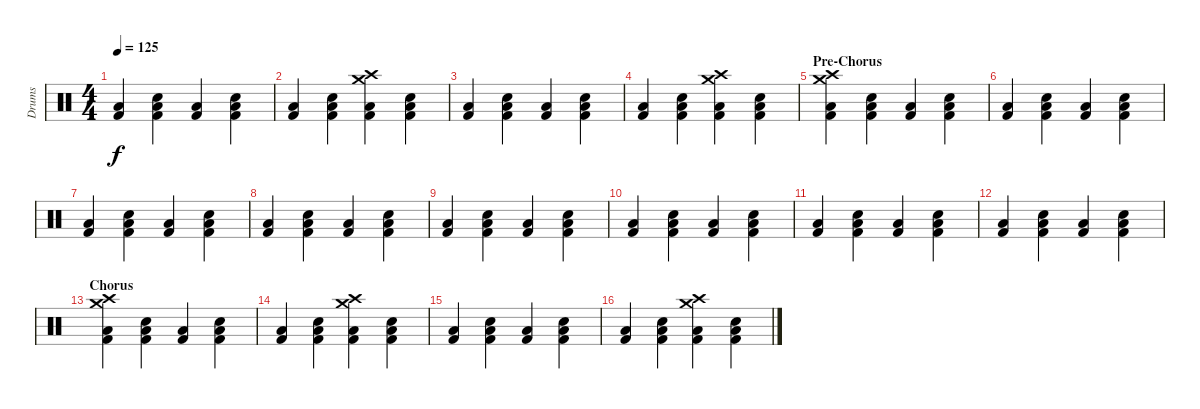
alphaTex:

\track ("Drums" "Drums") {instrument percussion}
\staff {score}
\articulation defaults
\ts (4 4)
\tempo 125
\clef neutral
\ks c
("Low Floor Tom (hit)" "Kick (hit) 2").4{dy f} ("Snare (hit) 2" "Low Floor Tom (hit)" "Kick (hit) 2").4 ("Low Floor Tom (hit)" "Kick (hit) 2").4 ("Snare (hit) 2" "Low Floor Tom (hit)" "Kick (hit) 2").4 |
("Low Floor Tom (hit)" "Kick (hit) 2").4 ("Snare (hit) 2" "Low Floor Tom (hit)" "Kick (hit) 2").4 ("Crash high (hit)" "Crash medium (hit)" "Low Floor Tom (hit)" "Kick (hit) 2").4 ("Snare (hit) 2" "Low Floor Tom (hit)" "Kick (hit) 2").4 |
("Low Floor Tom (hit)" "Kick (hit) 2").4 ("Snare (hit) 2" "Low Floor Tom (hit)" "Kick (hit) 2").4 ("Low Floor Tom (hit)" "Kick (hit) 2").4 ("Snare (hit) 2" "Low Floor Tom (hit)" "Kick (hit) 2").4 |
("Low Floor Tom (hit)" "Kick (hit) 2").4 ("Snare (hit) 2" "Low Floor Tom (hit)" "Kick (hit) 2").4 ("Crash high (hit)" "Crash medium (hit)" "Low Floor Tom (hit)" "Kick (hit) 2").4 ("Snare (hit) 2" "Low Floor Tom (hit)" "Kick (hit) 2").4 |
\section ("" "Pre-Chorus")
("Crash high (hit)" "Crash medium (hit)" "Low Floor Tom (hit)" "Kick (hit) 2").4 ("Snare (hit) 2" "Low Floor Tom (hit)" "Kick (hit) 2").4 ("Low Floor Tom (hit)" "Kick (hit) 2").4 ("Snare (hit) 2" "Low Floor Tom (hit)" "Kick (hit) 2").4 |
("Low Floor Tom (hit)" "Kick (hit) 2").4 ("Snare (hit) 2" "Low Floor Tom (hit)" "Kick (hit) 2").4 ("Low Floor Tom (hit)" "Kick (hit) 2").4 ("Snare (hit) 2" "Low Floor Tom (hit)" "Kick (hit) 2").4 |
("Low Floor Tom (hit)" "Kick (hit) 2").4 ("Snare (hit) 2" "Low Floor Tom (hit)" "Kick (hit) 2").4 ("Low Floor Tom (hit)" "Kick (hit) 2").4 ("Snare (hit) 2" "Low Floor Tom (hit)" "Kick (hit) 2").4 |
("Low Floor Tom (hit)" "Kick (hit) 2").4 ("Snare (hit) 2" "Low Floor Tom (hit)" "Kick (hit) 2").4 ("Low Floor Tom (hit)" "Kick (hit) 2").4 ("Snare (hit) 2" "Low Floor Tom (hit)" "Kick (hit) 2").4 |
("Low Floor Tom (hit)" "Kick (hit) 2").4 ("Snare (hit) 2" "Low Floor Tom (hit)" "Kick (hit) 2").4 ("Low Floor Tom (hit)" "Kick (hit) 2").4 ("Snare (hit) 2" "Low Floor Tom (hit)" "Kick (hit) 2").4 |
("Low Floor Tom (hit)" "Kick (hit) 2").4 ("Snare (hit) 2" "Low Floor Tom (hit)" "Kick (hit) 2").4 ("Low Floor Tom (hit)" "Kick (hit) 2").4 ("Snare (hit) 2" "Low Floor Tom (hit)" "Kick (hit) 2").4 |
("Low Floor Tom (hit)" "Kick (hit) 2").4 ("Snare (hit) 2" "Low Floor Tom (hit)" "Kick (hit) 2").4 ("Low Floor Tom (hit)" "Kick (hit) 2").4 ("Snare (hit) 2" "Low Floor Tom (hit)" "Kick (hit) 2").4 |
("Low Floor Tom (hit)" "Kick (hit) 2").4 ("Snare (hit) 2" "Low Floor Tom (hit)" "Kick (hit) 2").4 ("Low Floor Tom (hit)" "Kick (hit) 2").4 ("Snare (hit) 2" "Low Floor Tom (hit)" "Kick (hit) 2").4 |
\section ("" "Chorus")
("Crash high (hit)" "Crash medium (hit)" "Low Floor Tom (hit)" "Kick (hit) 2").4 ("Snare (hit) 2" "Low Floor Tom (hit)" "Kick (hit) 2").4 ("Low Floor Tom (hit)" "Kick (hit) 2").4 ("Snare (hit) 2" "Low Floor Tom (hit)" "Kick (hit) 2").4 |
("Low Floor Tom (hit)" "Kick (hit) 2").4 ("Snare (hit) 2" "Low Floor Tom (hit)" "Kick (hit) 2").4 ("Crash high (hit)" "Crash medium (hit)" "Low Floor Tom (hit)" "Kick (hit) 2").4 ("Snare (hit) 2" "Low Floor Tom (hit)" "Kick (hit) 2").4 |
("Low Floor Tom (hit)" "Kick (hit) 2").4 ("Snare (hit) 2" "Low Floor Tom (hit)" "Kick (hit) 2").4 ("Low Floor Tom (hit)" "Kick (hit) 2").4 ("Snare (hit) 2" "Low Floor Tom (hit)" "Kick (hit) 2").4 |
("Low Floor Tom (hit)" "Kick (hit) 2").4 ("Snare (hit) 2" "Low Floor Tom (hit)" "Kick (hit) 2").4 ("Crash high (hit)" "Crash medium (hit)" "Low Floor Tom (hit)" "Kick (hit) 2").4 ("Snare (hit) 2" "Low Floor Tom (hit)" "Kick (hit) 2").4
